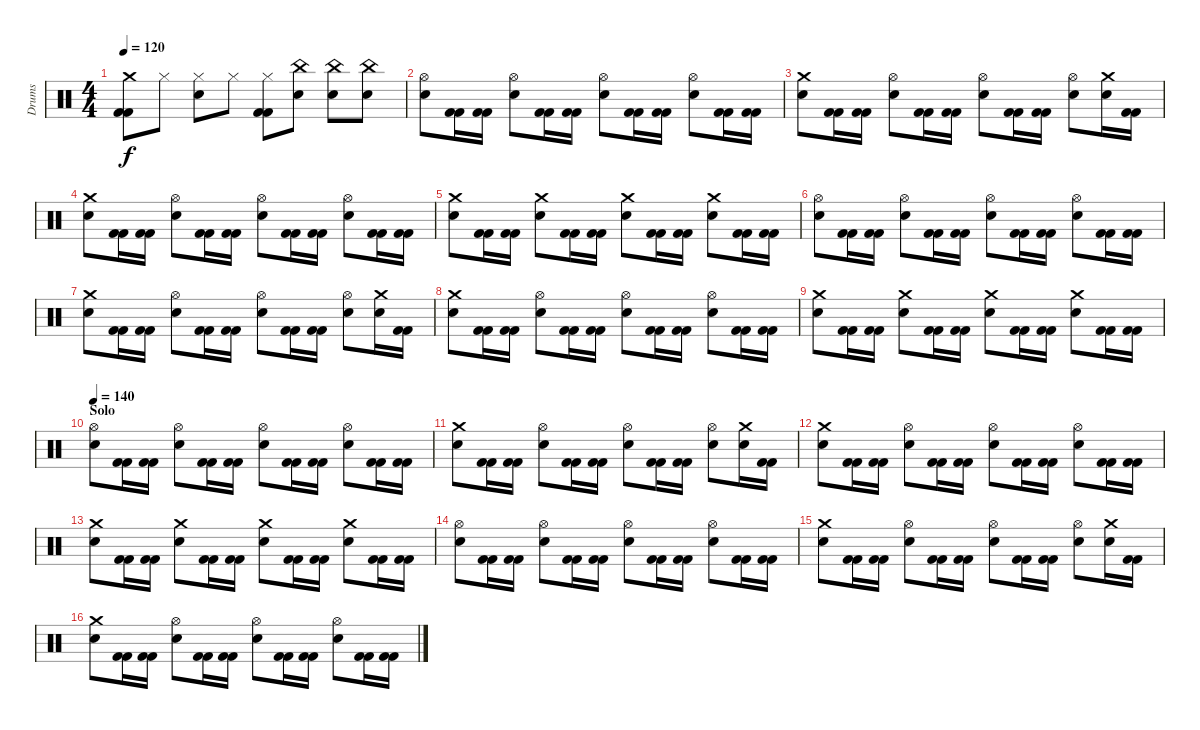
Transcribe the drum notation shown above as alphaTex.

\track ("Drums" "Drums") {instrument percussion}
\staff {score}
\articulation defaults
\ts (4 4)
\tempo 120
\clef neutral
\ks c
("Crash medium (hit)" "Kick (hit) 2" "Kick (hit) 2").8{dy f} "Hi-Hat (closed)".8 ("Electric Snare (hit)" "Hi-Hat (closed)").8 "Hi-Hat (closed)".8 ("Hi-Hat (closed)" "Kick (hit) 2" "Kick (hit) 2").8 ("Electric Snare (hit)" "China (hit)").8 ("Electric Snare (hit)" "China (hit)").8 ("Electric Snare (hit)" "China (hit)").8 |
("Hi-Hat (open)" "Electric Snare (hit)").8 ("Kick (hit) 2" "Kick (hit) 2").16 ("Kick (hit) 2" "Kick (hit) 2").16 ("Electric Snare (hit)" "Hi-Hat (open)").8 ("Kick (hit) 2" "Kick (hit) 2").16 ("Kick (hit) 2" "Kick (hit) 2").16 ("Electric Snare (hit)" "Hi-Hat (open)").8 ("Kick (hit) 2" "Kick (hit) 2").16 ("Kick (hit) 2" "Kick (hit) 2").16 ("Hi-Hat (open)" "Electric Snare (hit)").8 ("Kick (hit) 2" "Kick (hit) 2").16 ("Kick (hit) 2" "Kick (hit) 2").16 |
("Crash medium (hit)" "Electric Snare (hit)").8 ("Kick (hit) 2" "Kick (hit) 2").16 ("Kick (hit) 2" "Kick (hit) 2").16 ("Electric Snare (hit)" "Hi-Hat (open)").8 ("Kick (hit) 2" "Kick (hit) 2").16 ("Kick (hit) 2" "Kick (hit) 2").16 ("Electric Snare (hit)" "Hi-Hat (open)").8 ("Kick (hit) 2" "Kick (hit) 2").16 ("Kick (hit) 2" "Kick (hit) 2").16 ("Hi-Hat (open)" "Electric Snare (hit)").8 ("Crash medium (hit)" "Electric Snare (hit)").16 ("Kick (hit) 2" "Kick (hit) 2").16 |
("Crash medium (hit)" "Electric Snare (hit)").8 ("Kick (hit) 2" "Kick (hit) 2").16 ("Kick (hit) 2" "Kick (hit) 2").16 ("Electric Snare (hit)" "Hi-Hat (open)").8 ("Kick (hit) 2" "Kick (hit) 2").16 ("Kick (hit) 2" "Kick (hit) 2").16 ("Electric Snare (hit)" "Hi-Hat (open)").8 ("Kick (hit) 2" "Kick (hit) 2").16 ("Kick (hit) 2" "Kick (hit) 2").16 ("Hi-Hat (open)" "Electric Snare (hit)").8 ("Kick (hit) 2" "Kick (hit) 2").16 ("Kick (hit) 2" "Kick (hit) 2").16 |
("Crash medium (hit)" "Electric Snare (hit)").8 ("Kick (hit) 2" "Kick (hit) 2").16 ("Kick (hit) 2" "Kick (hit) 2").16 ("Electric Snare (hit)" "Crash medium (hit)").8 ("Kick (hit) 2" "Kick (hit) 2").16 ("Kick (hit) 2" "Kick (hit) 2").16 ("Crash medium (hit)" "Electric Snare (hit)").8 ("Kick (hit) 2" "Kick (hit) 2").16 ("Kick (hit) 2" "Kick (hit) 2").16 ("Electric Snare (hit)" "Crash medium (hit)").8 ("Kick (hit) 2" "Kick (hit) 2").16 ("Kick (hit) 2" "Kick (hit) 2").16 |
("Hi-Hat (open)" "Electric Snare (hit)").8 ("Kick (hit) 2" "Kick (hit) 2").16 ("Kick (hit) 2" "Kick (hit) 2").16 ("Electric Snare (hit)" "Hi-Hat (open)").8 ("Kick (hit) 2" "Kick (hit) 2").16 ("Kick (hit) 2" "Kick (hit) 2").16 ("Electric Snare (hit)" "Hi-Hat (open)").8 ("Kick (hit) 2" "Kick (hit) 2").16 ("Kick (hit) 2" "Kick (hit) 2").16 ("Hi-Hat (open)" "Electric Snare (hit)").8 ("Kick (hit) 2" "Kick (hit) 2").16 ("Kick (hit) 2" "Kick (hit) 2").16 |
("Crash medium (hit)" "Electric Snare (hit)").8 ("Kick (hit) 2" "Kick (hit) 2").16 ("Kick (hit) 2" "Kick (hit) 2").16 ("Electric Snare (hit)" "Hi-Hat (open)").8 ("Kick (hit) 2" "Kick (hit) 2").16 ("Kick (hit) 2" "Kick (hit) 2").16 ("Electric Snare (hit)" "Hi-Hat (open)").8 ("Kick (hit) 2" "Kick (hit) 2").16 ("Kick (hit) 2" "Kick (hit) 2").16 ("Hi-Hat (open)" "Electric Snare (hit)").8 ("Crash medium (hit)" "Electric Snare (hit)").16 ("Kick (hit) 2" "Kick (hit) 2").16 |
("Crash medium (hit)" "Electric Snare (hit)").8 ("Kick (hit) 2" "Kick (hit) 2").16 ("Kick (hit) 2" "Kick (hit) 2").16 ("Electric Snare (hit)" "Hi-Hat (open)").8 ("Kick (hit) 2" "Kick (hit) 2").16 ("Kick (hit) 2" "Kick (hit) 2").16 ("Electric Snare (hit)" "Hi-Hat (open)").8 ("Kick (hit) 2" "Kick (hit) 2").16 ("Kick (hit) 2" "Kick (hit) 2").16 ("Hi-Hat (open)" "Electric Snare (hit)").8 ("Kick (hit) 2" "Kick (hit) 2").16 ("Kick (hit) 2" "Kick (hit) 2").16 |
("Crash medium (hit)" "Electric Snare (hit)").8 ("Kick (hit) 2" "Kick (hit) 2").16 ("Kick (hit) 2" "Kick (hit) 2").16 ("Electric Snare (hit)" "Crash medium (hit)").8 ("Kick (hit) 2" "Kick (hit) 2").16 ("Kick (hit) 2" "Kick (hit) 2").16 ("Crash medium (hit)" "Electric Snare (hit)").8 ("Kick (hit) 2" "Kick (hit) 2").16 ("Kick (hit) 2" "Kick (hit) 2").16 ("Electric Snare (hit)" "Crash medium (hit)").8 ("Kick (hit) 2" "Kick (hit) 2").16 ("Kick (hit) 2" "Kick (hit) 2").16 |
\section ("" "Solo")
\tempo 140
("Hi-Hat (open)" "Electric Snare (hit)").8 ("Kick (hit) 2" "Kick (hit) 2").16 ("Kick (hit) 2" "Kick (hit) 2").16 ("Electric Snare (hit)" "Hi-Hat (open)").8 ("Kick (hit) 2" "Kick (hit) 2").16 ("Kick (hit) 2" "Kick (hit) 2").16 ("Electric Snare (hit)" "Hi-Hat (open)").8 ("Kick (hit) 2" "Kick (hit) 2").16 ("Kick (hit) 2" "Kick (hit) 2").16 ("Hi-Hat (open)" "Electric Snare (hit)").8 ("Kick (hit) 2" "Kick (hit) 2").16 ("Kick (hit) 2" "Kick (hit) 2").16 |
("Crash medium (hit)" "Electric Snare (hit)").8 ("Kick (hit) 2" "Kick (hit) 2").16 ("Kick (hit) 2" "Kick (hit) 2").16 ("Electric Snare (hit)" "Hi-Hat (open)").8 ("Kick (hit) 2" "Kick (hit) 2").16 ("Kick (hit) 2" "Kick (hit) 2").16 ("Electric Snare (hit)" "Hi-Hat (open)").8 ("Kick (hit) 2" "Kick (hit) 2").16 ("Kick (hit) 2" "Kick (hit) 2").16 ("Hi-Hat (open)" "Electric Snare (hit)").8 ("Crash medium (hit)" "Electric Snare (hit)").16 ("Kick (hit) 2" "Kick (hit) 2").16 |
("Crash medium (hit)" "Electric Snare (hit)").8 ("Kick (hit) 2" "Kick (hit) 2").16 ("Kick (hit) 2" "Kick (hit) 2").16 ("Electric Snare (hit)" "Hi-Hat (open)").8 ("Kick (hit) 2" "Kick (hit) 2").16 ("Kick (hit) 2" "Kick (hit) 2").16 ("Electric Snare (hit)" "Hi-Hat (open)").8 ("Kick (hit) 2" "Kick (hit) 2").16 ("Kick (hit) 2" "Kick (hit) 2").16 ("Hi-Hat (open)" "Electric Snare (hit)").8 ("Kick (hit) 2" "Kick (hit) 2").16 ("Kick (hit) 2" "Kick (hit) 2").16 |
("Crash medium (hit)" "Electric Snare (hit)").8 ("Kick (hit) 2" "Kick (hit) 2").16 ("Kick (hit) 2" "Kick (hit) 2").16 ("Electric Snare (hit)" "Crash medium (hit)").8 ("Kick (hit) 2" "Kick (hit) 2").16 ("Kick (hit) 2" "Kick (hit) 2").16 ("Crash medium (hit)" "Electric Snare (hit)").8 ("Kick (hit) 2" "Kick (hit) 2").16 ("Kick (hit) 2" "Kick (hit) 2").16 ("Electric Snare (hit)" "Crash medium (hit)").8 ("Kick (hit) 2" "Kick (hit) 2").16 ("Kick (hit) 2" "Kick (hit) 2").16 |
("Hi-Hat (open)" "Electric Snare (hit)").8 ("Kick (hit) 2" "Kick (hit) 2").16 ("Kick (hit) 2" "Kick (hit) 2").16 ("Electric Snare (hit)" "Hi-Hat (open)").8 ("Kick (hit) 2" "Kick (hit) 2").16 ("Kick (hit) 2" "Kick (hit) 2").16 ("Electric Snare (hit)" "Hi-Hat (open)").8 ("Kick (hit) 2" "Kick (hit) 2").16 ("Kick (hit) 2" "Kick (hit) 2").16 ("Hi-Hat (open)" "Electric Snare (hit)").8 ("Kick (hit) 2" "Kick (hit) 2").16 ("Kick (hit) 2" "Kick (hit) 2").16 |
("Crash medium (hit)" "Electric Snare (hit)").8 ("Kick (hit) 2" "Kick (hit) 2").16 ("Kick (hit) 2" "Kick (hit) 2").16 ("Electric Snare (hit)" "Hi-Hat (open)").8 ("Kick (hit) 2" "Kick (hit) 2").16 ("Kick (hit) 2" "Kick (hit) 2").16 ("Electric Snare (hit)" "Hi-Hat (open)").8 ("Kick (hit) 2" "Kick (hit) 2").16 ("Kick (hit) 2" "Kick (hit) 2").16 ("Hi-Hat (open)" "Electric Snare (hit)").8 ("Crash medium (hit)" "Electric Snare (hit)").16 ("Kick (hit) 2" "Kick (hit) 2").16 |
("Crash medium (hit)" "Electric Snare (hit)").8 ("Kick (hit) 2" "Kick (hit) 2").16 ("Kick (hit) 2" "Kick (hit) 2").16 ("Electric Snare (hit)" "Hi-Hat (open)").8 ("Kick (hit) 2" "Kick (hit) 2").16 ("Kick (hit) 2" "Kick (hit) 2").16 ("Electric Snare (hit)" "Hi-Hat (open)").8 ("Kick (hit) 2" "Kick (hit) 2").16 ("Kick (hit) 2" "Kick (hit) 2").16 ("Hi-Hat (open)" "Electric Snare (hit)").8 ("Kick (hit) 2" "Kick (hit) 2").16 ("Kick (hit) 2" "Kick (hit) 2").16
